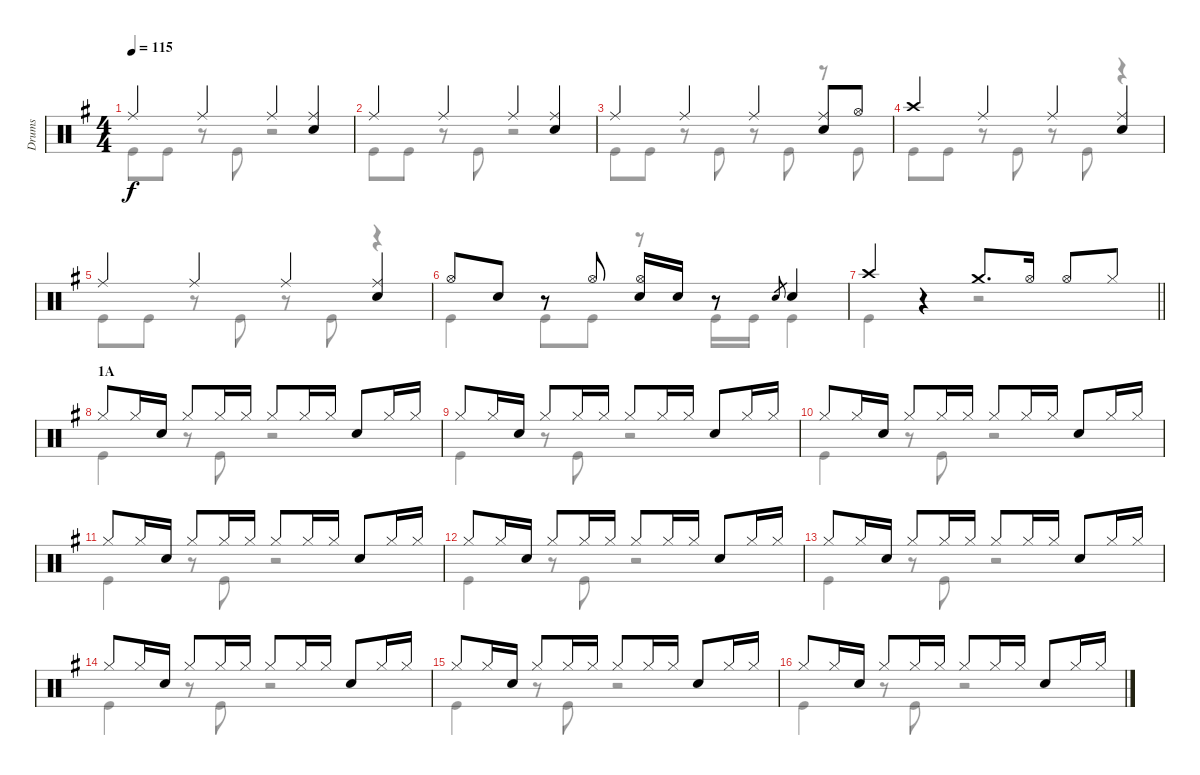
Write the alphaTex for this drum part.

\track ("Drums" "Drums") {instrument percussion}
\staff {score}
\articulation defaults
\voice
\ts (4 4)
\tempo 115
\clef neutral
\ks g "Ride (middle)".4{dy f} "Ride (middle)".4 "Ride (middle)".4
("Ride (middle)" "Snare (hit) 2").4 |
"Ride (middle)".4 "Ride (middle)".4 "Ride (middle)".4 ("Ride (middle)" "Snare (hit) 2").4 |
"Ride (middle)".4 "Ride (middle)".4 "Ride (middle)".4 ("Ride (middle)" "Snare (hit) 2").8 "Hi-Hat (open)".8 |
"Crash high (hit)".4 "Ride (middle)".4 "Ride (middle)".4 ("Ride (middle)" "Snare (hit) 2").4 |
"Ride (middle)".4 "Ride (middle)".4 "Ride (middle)".4 ("Ride (middle)" "Snare (hit) 2").4 |
"Hi-Hat (open)".8 "Snare (hit) 2".8 r.8 "Hi-Hat (open)".8 ("Hi-Hat (open)" "Snare (hit) 2").16 "Snare (hit) 2".16 r.8 "Snare (hit) 2".8{gr} "Snare (hit) 2".4 |
\barLineRight lightlight "Crash high (hit)".4
r.4 "Crash medium (hit)".8{d} "Hi-Hat (open)".16 "Hi-Hat (open)".8 "Hi-Hat (closed)".8 |
\section ("" "1A")
"Hi-Hat (closed)".8 "Hi-Hat (closed)".16 "Snare (hit) 2".16 "Hi-Hat (closed)".8 "Hi-Hat (closed)".16 "Hi-Hat (closed)".16 "Hi-Hat (closed)".8 "Hi-Hat (closed)".16 "Hi-Hat (closed)".16 "Snare (hit) 2".8 "Hi-Hat (closed)".16 "Hi-Hat (closed)".16 |
"Hi-Hat (closed)".8 "Hi-Hat (closed)".16 "Snare (hit) 2".16 "Hi-Hat (closed)".8 "Hi-Hat (closed)".16 "Hi-Hat (closed)".16 "Hi-Hat (closed)".8 "Hi-Hat (closed)".16 "Hi-Hat (closed)".16 "Snare (hit) 2".8 "Hi-Hat (closed)".16 "Hi-Hat (closed)".16 |
"Hi-Hat (closed)".8 "Hi-Hat (closed)".16 "Snare (hit) 2".16 "Hi-Hat (closed)".8 "Hi-Hat (closed)".16 "Hi-Hat (closed)".16 "Hi-Hat (closed)".8 "Hi-Hat (closed)".16 "Hi-Hat (closed)".16 "Snare (hit) 2".8 "Hi-Hat (closed)".16 "Hi-Hat (closed)".16 |
"Hi-Hat (closed)".8 "Hi-Hat (closed)".16 "Snare (hit) 2".16 "Hi-Hat (closed)".8 "Hi-Hat (closed)".16 "Hi-Hat (closed)".16 "Hi-Hat (closed)".8 "Hi-Hat (closed)".16 "Hi-Hat (closed)".16 "Snare (hit) 2".8 "Hi-Hat (closed)".16 "Hi-Hat (closed)".16 |
"Hi-Hat (closed)".8 "Hi-Hat (closed)".16 "Snare (hit) 2".16 "Hi-Hat (closed)".8 "Hi-Hat (closed)".16 "Hi-Hat (closed)".16 "Hi-Hat (closed)".8 "Hi-Hat (closed)".16 "Hi-Hat (closed)".16 "Snare (hit) 2".8 "Hi-Hat (closed)".16 "Hi-Hat (closed)".16 |
"Hi-Hat (closed)".8 "Hi-Hat (closed)".16 "Snare (hit) 2".16 "Hi-Hat (closed)".8 "Hi-Hat (closed)".16 "Hi-Hat (closed)".16 "Hi-Hat (closed)".8 "Hi-Hat (closed)".16 "Hi-Hat (closed)".16 "Snare (hit) 2".8 "Hi-Hat (closed)".16 "Hi-Hat (closed)".16 |
"Hi-Hat (closed)".8 "Hi-Hat (closed)".16 "Snare (hit) 2".16 "Hi-Hat (closed)".8 "Hi-Hat (closed)".16 "Hi-Hat (closed)".16 "Hi-Hat (closed)".8 "Hi-Hat (closed)".16 "Hi-Hat (closed)".16 "Snare (hit) 2".8 "Hi-Hat (closed)".16 "Hi-Hat (closed)".16 |
"Hi-Hat (closed)".8 "Hi-Hat (closed)".16 "Snare (hit) 2".16 "Hi-Hat (closed)".8 "Hi-Hat (closed)".16 "Hi-Hat (closed)".16 "Hi-Hat (closed)".8 "Hi-Hat (closed)".16 "Hi-Hat (closed)".16 "Snare (hit) 2".8 "Hi-Hat (closed)".16 "Hi-Hat (closed)".16 |
"Hi-Hat (closed)".8 "Hi-Hat (closed)".16 "Snare (hit) 2".16 "Hi-Hat (closed)".8 "Hi-Hat (closed)".16 "Hi-Hat (closed)".16 "Hi-Hat (closed)".8 "Hi-Hat (closed)".16 "Hi-Hat (closed)".16 "Snare (hit) 2".8 "Hi-Hat (closed)".16 "Hi-Hat (closed)".16
\voice
\clef neutral
\ottava regular
\simile none
\ks g "Kick (hit)".8{dy f} "Kick (hit)".8
r.8 "Kick (hit)".8 r.2 |
"Kick (hit)".8 "Kick (hit)".8 r.8 "Kick (hit)".8 r.2 |
"Kick (hit)".8 "Kick (hit)".8 r.8 "Kick (hit)".8 r.8 "Kick (hit)".8 r.8 "Kick (hit)".8 |
"Kick (hit)".8 "Kick (hit)".8 r.8 "Kick (hit)".8 r.8 "Kick (hit)".8 r.4 |
"Kick (hit)".8 "Kick (hit)".8 r.8 "Kick (hit)".8 r.8 "Kick (hit)".8 r.4 |
"Kick (hit)".4 "Kick (hit)".8 "Kick (hit)".8 r.8 "Kick (hit)".16 "Kick (hit)".16 "Kick (hit)".4 |
\barLineRight lightlight "Kick (hit)".4
r.4 r.2 |
"Kick (hit)".4 r.8 "Kick (hit)".8 r.2 |
"Kick (hit)".4 r.8 "Kick (hit)".8 r.2 |
"Kick (hit)".4 r.8 "Kick (hit)".8 r.2 |
"Kick (hit)".4 r.8 "Kick (hit)".8 r.2 |
"Kick (hit)".4 r.8 "Kick (hit)".8 r.2 |
"Kick (hit)".4 r.8 "Kick (hit)".8 r.2 |
"Kick (hit)".4 r.8 "Kick (hit)".8 r.2 |
"Kick (hit)".4 r.8 "Kick (hit)".8 r.2 |
"Kick (hit)".4 r.8 "Kick (hit)".8 r.2
